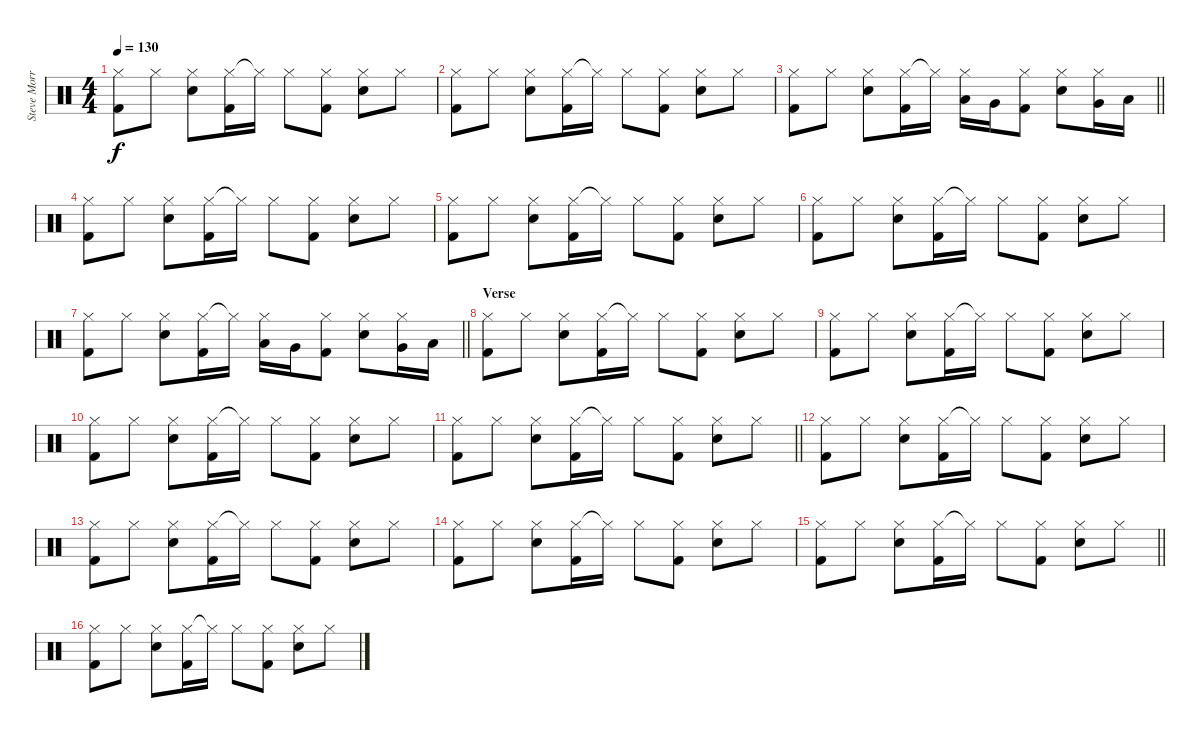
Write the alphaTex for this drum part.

\track ("Steve Morris" "Steve Morr") {instrument percussion}
\staff {score}
\articulation defaults
\ts (4 4)
\tempo 130
\clef neutral
\ks c
("Hi-Hat (closed)" "Kick (hit) 2").8{dy f} "Hi-Hat (closed)".8 ("Hi-Hat (closed)" "Electric Snare (hit)").8 ("Hi-Hat (closed)" "Kick (hit) 2").16 "Hi-Hat (closed)"{t}.16 "Hi-Hat (closed)".8 ("Hi-Hat (closed)" "Kick (hit) 2").8 ("Hi-Hat (closed)" "Electric Snare (hit)").8 "Hi-Hat (closed)".8 |
("Hi-Hat (closed)" "Kick (hit) 2").8 "Hi-Hat (closed)".8 ("Hi-Hat (closed)" "Electric Snare (hit)").8 ("Hi-Hat (closed)" "Kick (hit) 2").16 "Hi-Hat (closed)"{t}.16 "Hi-Hat (closed)".8 ("Hi-Hat (closed)" "Kick (hit) 2").8 ("Hi-Hat (closed)" "Electric Snare (hit)").8 "Hi-Hat (closed)".8 |
\barLineRight lightlight
("Hi-Hat (closed)" "Kick (hit) 2").8 "Hi-Hat (closed)".8 ("Hi-Hat (closed)" "Electric Snare (hit)").8 ("Hi-Hat (closed)" "Kick (hit) 2").16 "Hi-Hat (closed)"{t}.16 ("Hi-Hat (closed)" "Low Tom (hit)").16 "Very Low Tom (hit)".16 ("Hi-Hat (closed)" "Kick (hit) 2").8 ("Hi-Hat (closed)" "Electric Snare (hit)").8 ("Hi-Hat (closed)" "Very Low Tom (hit)").16 "Low Floor Tom (hit)".16 |
("Hi-Hat (closed)" "Kick (hit) 2").8 "Hi-Hat (closed)".8 ("Hi-Hat (closed)" "Electric Snare (hit)").8 ("Hi-Hat (closed)" "Kick (hit) 2").16 "Hi-Hat (closed)"{t}.16 "Hi-Hat (closed)".8 ("Hi-Hat (closed)" "Kick (hit) 2").8 ("Hi-Hat (closed)" "Electric Snare (hit)").8 "Hi-Hat (closed)".8 |
("Hi-Hat (closed)" "Kick (hit) 2").8 "Hi-Hat (closed)".8 ("Hi-Hat (closed)" "Electric Snare (hit)").8 ("Hi-Hat (closed)" "Kick (hit) 2").16 "Hi-Hat (closed)"{t}.16 "Hi-Hat (closed)".8 ("Hi-Hat (closed)" "Kick (hit) 2").8 ("Hi-Hat (closed)" "Electric Snare (hit)").8 "Hi-Hat (closed)".8 |
("Hi-Hat (closed)" "Kick (hit) 2").8 "Hi-Hat (closed)".8 ("Hi-Hat (closed)" "Electric Snare (hit)").8 ("Hi-Hat (closed)" "Kick (hit) 2").16 "Hi-Hat (closed)"{t}.16 "Hi-Hat (closed)".8 ("Hi-Hat (closed)" "Kick (hit) 2").8 ("Hi-Hat (closed)" "Electric Snare (hit)").8 "Hi-Hat (closed)".8 |
\barLineRight lightlight
("Hi-Hat (closed)" "Kick (hit) 2").8 "Hi-Hat (closed)".8 ("Hi-Hat (closed)" "Electric Snare (hit)").8 ("Hi-Hat (closed)" "Kick (hit) 2").16 "Hi-Hat (closed)"{t}.16 ("Hi-Hat (closed)" "Low Tom (hit)").16 "Very Low Tom (hit)".16 ("Hi-Hat (closed)" "Kick (hit) 2").8 ("Hi-Hat (closed)" "Electric Snare (hit)").8 ("Hi-Hat (closed)" "Very Low Tom (hit)").16 "Low Floor Tom (hit)".16 |
\section ("" "Verse")
("Hi-Hat (closed)" "Kick (hit) 2").8 "Hi-Hat (closed)".8 ("Hi-Hat (closed)" "Electric Snare (hit)").8 ("Hi-Hat (closed)" "Kick (hit) 2").16 "Hi-Hat (closed)"{t}.16 "Hi-Hat (closed)".8 ("Hi-Hat (closed)" "Kick (hit) 2").8 ("Hi-Hat (closed)" "Electric Snare (hit)").8 "Hi-Hat (closed)".8 |
("Hi-Hat (closed)" "Kick (hit) 2").8 "Hi-Hat (closed)".8 ("Hi-Hat (closed)" "Electric Snare (hit)").8 ("Hi-Hat (closed)" "Kick (hit) 2").16 "Hi-Hat (closed)"{t}.16 "Hi-Hat (closed)".8 ("Hi-Hat (closed)" "Kick (hit) 2").8 ("Hi-Hat (closed)" "Electric Snare (hit)").8 "Hi-Hat (closed)".8 |
("Hi-Hat (closed)" "Kick (hit) 2").8 "Hi-Hat (closed)".8 ("Hi-Hat (closed)" "Electric Snare (hit)").8 ("Hi-Hat (closed)" "Kick (hit) 2").16 "Hi-Hat (closed)"{t}.16 "Hi-Hat (closed)".8 ("Hi-Hat (closed)" "Kick (hit) 2").8 ("Hi-Hat (closed)" "Electric Snare (hit)").8 "Hi-Hat (closed)".8 |
\barLineRight lightlight
("Hi-Hat (closed)" "Kick (hit) 2").8 "Hi-Hat (closed)".8 ("Hi-Hat (closed)" "Electric Snare (hit)").8 ("Hi-Hat (closed)" "Kick (hit) 2").16 "Hi-Hat (closed)"{t}.16 "Hi-Hat (closed)".8 ("Hi-Hat (closed)" "Kick (hit) 2").8 ("Hi-Hat (closed)" "Electric Snare (hit)").8 "Hi-Hat (closed)".8 |
("Hi-Hat (closed)" "Kick (hit) 2").8 "Hi-Hat (closed)".8 ("Hi-Hat (closed)" "Electric Snare (hit)").8 ("Hi-Hat (closed)" "Kick (hit) 2").16 "Hi-Hat (closed)"{t}.16 "Hi-Hat (closed)".8 ("Hi-Hat (closed)" "Kick (hit) 2").8 ("Hi-Hat (closed)" "Electric Snare (hit)").8 "Hi-Hat (closed)".8 |
("Hi-Hat (closed)" "Kick (hit) 2").8 "Hi-Hat (closed)".8 ("Hi-Hat (closed)" "Electric Snare (hit)").8 ("Hi-Hat (closed)" "Kick (hit) 2").16 "Hi-Hat (closed)"{t}.16 "Hi-Hat (closed)".8 ("Hi-Hat (closed)" "Kick (hit) 2").8 ("Hi-Hat (closed)" "Electric Snare (hit)").8 "Hi-Hat (closed)".8 |
("Hi-Hat (closed)" "Kick (hit) 2").8 "Hi-Hat (closed)".8 ("Hi-Hat (closed)" "Electric Snare (hit)").8 ("Hi-Hat (closed)" "Kick (hit) 2").16 "Hi-Hat (closed)"{t}.16 "Hi-Hat (closed)".8 ("Hi-Hat (closed)" "Kick (hit) 2").8 ("Hi-Hat (closed)" "Electric Snare (hit)").8 "Hi-Hat (closed)".8 |
\barLineRight lightlight
("Hi-Hat (closed)" "Kick (hit) 2").8 "Hi-Hat (closed)".8 ("Hi-Hat (closed)" "Electric Snare (hit)").8 ("Hi-Hat (closed)" "Kick (hit) 2").16 "Hi-Hat (closed)"{t}.16 "Hi-Hat (closed)".8 ("Hi-Hat (closed)" "Kick (hit) 2").8 ("Hi-Hat (closed)" "Electric Snare (hit)").8 "Hi-Hat (closed)".8 |
("Hi-Hat (closed)" "Kick (hit) 2").8 "Hi-Hat (closed)".8 ("Hi-Hat (closed)" "Electric Snare (hit)").8 ("Hi-Hat (closed)" "Kick (hit) 2").16 "Hi-Hat (closed)"{t}.16 "Hi-Hat (closed)".8 ("Hi-Hat (closed)" "Kick (hit) 2").8 ("Hi-Hat (closed)" "Electric Snare (hit)").8 "Hi-Hat (closed)".8
